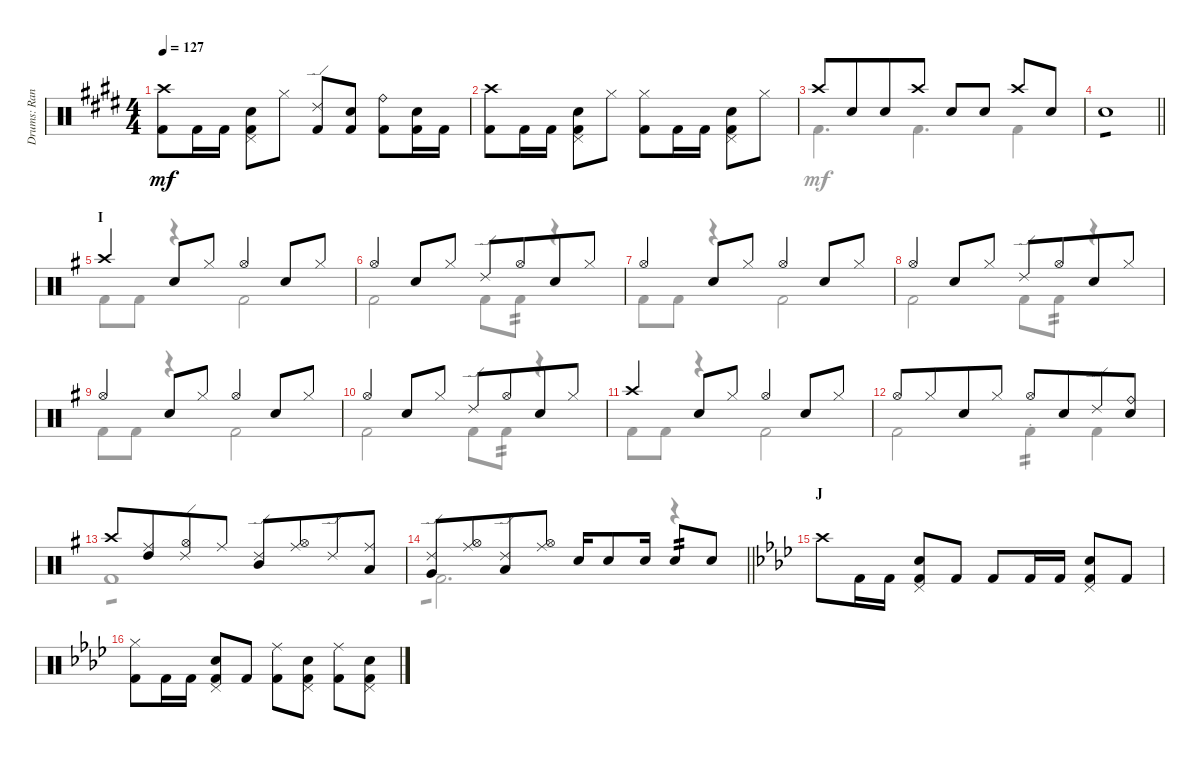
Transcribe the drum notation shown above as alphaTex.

\track ("Drums: Randy" "Drums: Ran") {instrument percussion}
\staff {score}
\articulation defaults
\voice
\ts (4 4)
\tempo 127
\clef neutral
\ks e
("Crash high (hit)" "Kick (hit) 2").8{dy mf} "Kick (hit) 2".16 "Kick (hit) 2".16 ("Pedal Hi-Hat (hit)" "Snare (hit) 2" "Kick (hit) 2").8 "Hi-Hat (closed)".8 ("Ride (edge) 2" "Kick (hit) 2").8 ("Snare (hit) 2" "Kick (hit) 2").8 ("Ride (bell)" "Kick (hit) 2").8 ("Snare (hit) 2" "Kick (hit) 2").16 "Kick (hit) 2".16 |
("Crash high (hit)" "Kick (hit) 2").8 "Kick (hit) 2".16 "Kick (hit) 2".16 ("Pedal Hi-Hat (hit)" "Snare (hit) 2" "Kick (hit) 2").8 "Hi-Hat (closed)".8 ("Hi-Hat (closed)" "Kick (hit) 2").8 "Kick (hit) 2".16 "Kick (hit) 2".16 ("Pedal Hi-Hat (hit)" "Snare (hit) 2" "Kick (hit) 2").8 "Hi-Hat (closed)".8 |
"Crash high (hit)".8 "Snare (hit) 2".8{beam merge} "Snare (hit) 2".8 "Crash high (hit)".8 "Snare (hit) 2".8 "Snare (hit) 2".8 "Crash high (hit)".8 "Snare (hit) 2".8 |
\barLineRight lightlight "Snare (hit) 2".1{tp 1}
|
\section ("" "I")
\ks g "Crash high (hit)".4 "Snare (hit) 2".8 "Hi-Hat (closed)".8 "Hi-Hat (open)".4 "Snare (hit) 2".8 "Hi-Hat (closed)".8
|
"Hi-Hat (open)".4 "Snare (hit) 2".8 "Hi-Hat (closed)".8 "Ride (edge) 2".8 "Hi-Hat (open)".8{beam merge} "Snare (hit) 2".8 "Hi-Hat (closed)".8 |
"Hi-Hat (open)".4 "Snare (hit) 2".8 "Hi-Hat (closed)".8 "Hi-Hat (open)".4 "Snare (hit) 2".8 "Hi-Hat (closed)".8 |
"Hi-Hat (open)".4 "Snare (hit) 2".8 "Hi-Hat (closed)".8 "Ride (edge) 2".8 "Hi-Hat (open)".8{beam merge} "Snare (hit) 2".8 "Hi-Hat (closed)".8 |
"Hi-Hat (open)".4 "Snare (hit) 2".8 "Hi-Hat (closed)".8 "Hi-Hat (open)".4 "Snare (hit) 2".8 "Hi-Hat (closed)".8 |
"Hi-Hat (open)".4 "Snare (hit) 2".8 "Hi-Hat (closed)".8 "Ride (edge) 2".8 "Hi-Hat (open)".8{beam merge} "Snare (hit) 2".8 "Hi-Hat (closed)".8 |
"Crash high (hit)".4 "Snare (hit) 2".8 "Hi-Hat (closed)".8 "Hi-Hat (open)".4 "Snare (hit) 2".8 "Hi-Hat (closed)".8 |
"Hi-Hat (open)".8 "Hi-Hat (closed)".8{beam merge} "Snare (hit) 2".8 "Hi-Hat (closed)".8 "Hi-Hat (open)".8 "Snare (hit) 2".8{beam merge} "Ride (edge) 2".8 ("Ride (bell)" "Snare (hit) 2").8 |
"Crash high (hit)".8 ("Ride (middle)" "High Tom (hit)").8{beam merge} ("Ride (edge) 2" "Hi-Hat (open)").8 "Ride (middle)".8 ("Ride (edge) 2" "Mid Tom (hit)").8 ("Ride (middle)" "Hi-Hat (open)").8{beam merge} "Ride (edge) 2".8 ("Ride (middle)" "Low Tom (hit)").8 |
\barLineRight lightlight
("Ride (edge) 2" "Very Low Tom (hit)").8 ("Ride (middle)" "Hi-Hat (open)").8{beam merge} ("Ride (edge) 2" "Low Floor Tom (hit)").8 ("Ride (middle)" "Hi-Hat (open)").8 "Snare (hit) 2".16 "Snare (hit) 2".8 "Snare (hit) 2".16 "Snare (hit) 2".8{tp 2} "Snare (hit) 2".8 |
\section ("" "J")
\ks ab "Crash high (hit)".8 "Kick (hit) 2".16 "Kick (hit) 2".16
("Pedal Hi-Hat (hit)" "Snare (hit) 2" "Kick (hit) 2").8 "Kick (hit) 2".8 "Kick (hit) 2".8 "Kick (hit) 2".16 "Kick (hit) 2".16 ("Pedal Hi-Hat (hit)" "Snare (hit) 2" "Kick (hit) 2").8 "Kick (hit) 2".8 |
("Hi-Hat (closed)" "Kick (hit) 2").8 "Kick (hit) 2".16 "Kick (hit) 2".16 ("Pedal Hi-Hat (hit)" "Snare (hit) 2" "Kick (hit) 2").8 "Kick (hit) 2".8 ("Ride (middle)" "Kick (hit) 2").8 ("Pedal Hi-Hat (hit)" "Snare (hit) 2" "Kick (hit) 2").8 ("Ride (middle)" "Kick (hit) 2").8 ("Pedal Hi-Hat (hit)" "Snare (hit) 2" "Kick (hit) 2").8
\voice
\clef neutral
\ottava regular
\simile none
\ks e
|
|
"Kick (hit) 2".4{d} "Kick (hit) 2".4{d} "Kick (hit) 2".4 |
\barLineRight lightlight
|
\ks g "Kick (hit) 2".8 "Kick (hit) 2".8
r.4 "Kick (hit) 2".2 |
"Kick (hit) 2".2 "Kick (hit) 2".8 "Kick (hit) 2".8{tp 2} r.4 |
"Kick (hit) 2".8 "Kick (hit) 2".8 r.4 "Kick (hit) 2".2 |
"Kick (hit) 2".2 "Kick (hit) 2".8 "Kick (hit) 2".8{tp 2} r.4 |
"Kick (hit) 2".8 "Kick (hit) 2".8 r.4 "Kick (hit) 2".2 |
"Kick (hit) 2".2 "Kick (hit) 2".8 "Kick (hit) 2".8{tp 2} r.4 |
"Kick (hit) 2".8 "Kick (hit) 2".8 r.4 "Kick (hit) 2".2 |
"Kick (hit) 2".2 "Kick (hit) 2"{st}.4{tp 2} "Kick (hit) 2".4 |
"Kick (hit) 2".1{tp 1} |
\barLineRight lightlight "Kick (hit) 2".2{d tp 1}
r.4 |
\ks ab
|
